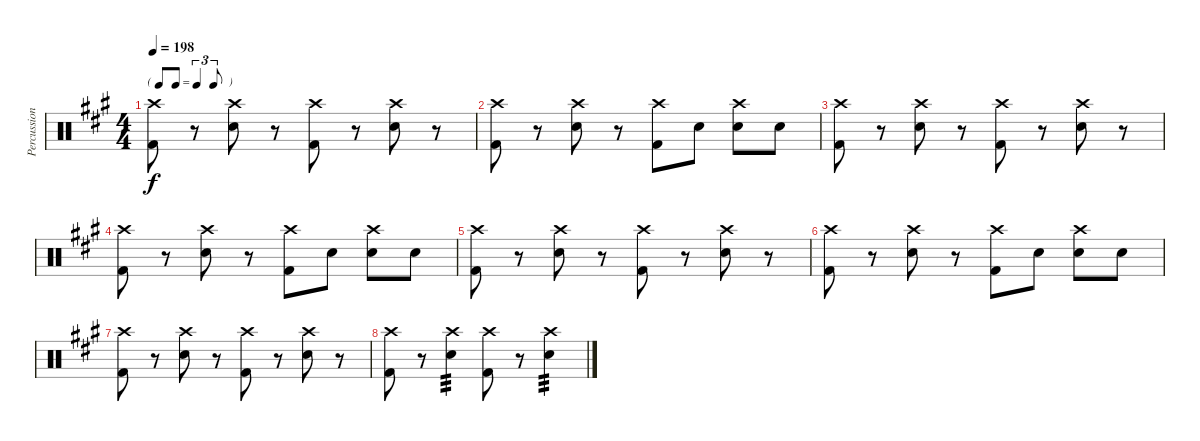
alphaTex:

\track ("Percussion" "Percussion") {instrument percussion}
\staff {score}
\articulation defaults
\ts (4 4)
\tf triplet8th
\tempo 198
\clef neutral
\ks a
("Crash high (hit)" "Kick (hit) 2").8{dy f} r.8 ("Crash high (hit)" "Snare (hit) 2").8 r.8 ("Crash high (hit)" "Kick (hit) 2").8 r.8 ("Crash high (hit)" "Snare (hit) 2").8 r.8 |
("Crash high (hit)" "Kick (hit) 2").8 r.8 ("Crash high (hit)" "Snare (hit) 2").8 r.8 ("Crash high (hit)" "Kick (hit) 2").8 "Snare (hit) 2".8 ("Crash high (hit)" "Snare (hit) 2").8 "Snare (hit) 2".8 |
("Crash high (hit)" "Kick (hit) 2").8 r.8 ("Crash high (hit)" "Snare (hit) 2").8 r.8 ("Crash high (hit)" "Kick (hit) 2").8 r.8 ("Crash high (hit)" "Snare (hit) 2").8 r.8 |
("Crash high (hit)" "Kick (hit) 2").8 r.8 ("Crash high (hit)" "Snare (hit) 2").8 r.8 ("Crash high (hit)" "Kick (hit) 2").8 "Snare (hit) 2".8 ("Crash high (hit)" "Snare (hit) 2").8 "Snare (hit) 2".8 |
("Crash high (hit)" "Kick (hit) 2").8 r.8 ("Crash high (hit)" "Snare (hit) 2").8 r.8 ("Crash high (hit)" "Kick (hit) 2").8 r.8 ("Crash high (hit)" "Snare (hit) 2").8 r.8 |
("Crash high (hit)" "Kick (hit) 2").8 r.8 ("Crash high (hit)" "Snare (hit) 2").8 r.8 ("Crash high (hit)" "Kick (hit) 2").8 "Snare (hit) 2".8 ("Crash high (hit)" "Snare (hit) 2").8 "Snare (hit) 2".8 |
("Crash high (hit)" "Kick (hit) 2").8 r.8 ("Crash high (hit)" "Snare (hit) 2").8 r.8 ("Crash high (hit)" "Kick (hit) 2").8 r.8 ("Crash high (hit)" "Snare (hit) 2").8 r.8 |
("Crash high (hit)" "Kick (hit) 2").8 r.8 ("Crash high (hit)" "Snare (hit) 2").4{tp 3} ("Crash high (hit)" "Kick (hit) 2").8 r.8 ("Crash high (hit)" "Snare (hit) 2").4{tp 3}
